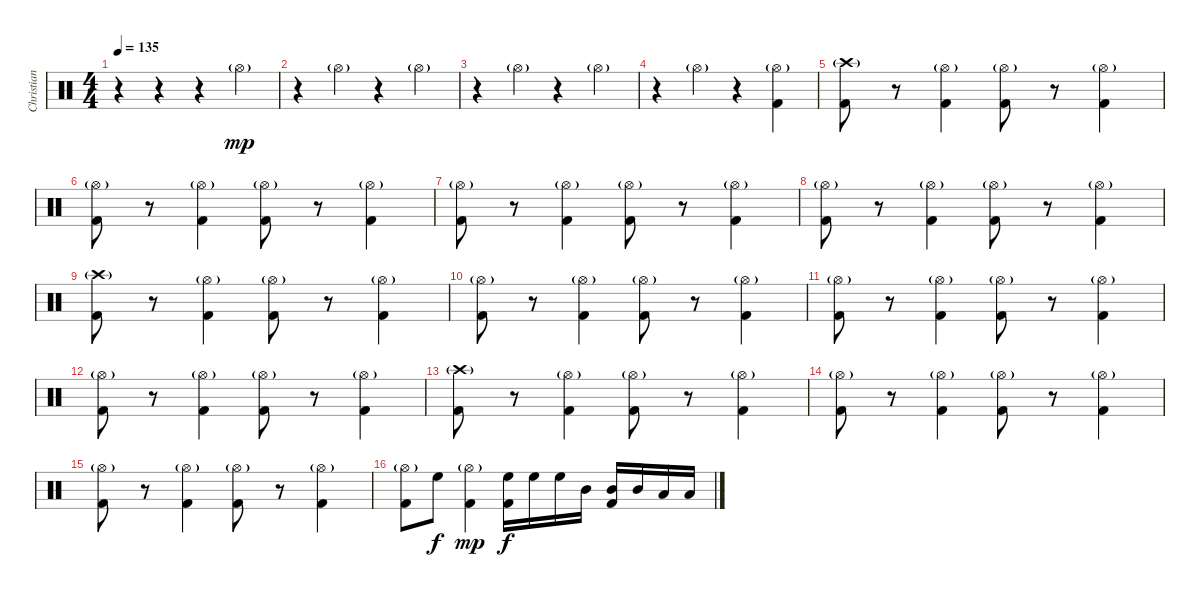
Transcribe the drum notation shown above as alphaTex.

\track ("Christian" "Christian") {instrument percussion}
\staff {score}
\articulation defaults
\ts (4 4)
\tempo 135
\clef neutral
\ks c
r.4{dy mp} r.4 r.4 "Hi-Hat (open)"{g}.4 |
r.4 "Hi-Hat (open)"{g}.4 r.4 "Hi-Hat (open)"{g}.4 |
r.4 "Hi-Hat (open)"{g}.4 r.4 "Hi-Hat (open)"{g}.4 |
r.4 "Hi-Hat (open)"{g}.4 r.4 ("Hi-Hat (open)"{g} "Kick (hit) 2").4 |
("Crash high (hit)"{g} "Kick (hit) 2").8 r.8 ("Hi-Hat (open)"{g} "Kick (hit) 2").4 ("Hi-Hat (open)"{g} "Kick (hit) 2").8 r.8 ("Hi-Hat (open)"{g} "Kick (hit) 2").4 |
("Hi-Hat (open)"{g} "Kick (hit) 2").8 r.8 ("Hi-Hat (open)"{g} "Kick (hit) 2").4 ("Hi-Hat (open)"{g} "Kick (hit) 2").8 r.8 ("Hi-Hat (open)"{g} "Kick (hit) 2").4 |
("Hi-Hat (open)"{g} "Kick (hit) 2").8 r.8 ("Hi-Hat (open)"{g} "Kick (hit) 2").4 ("Hi-Hat (open)"{g} "Kick (hit) 2").8 r.8 ("Hi-Hat (open)"{g} "Kick (hit) 2").4 |
("Hi-Hat (open)"{g} "Kick (hit) 2").8 r.8 ("Hi-Hat (open)"{g} "Kick (hit) 2").4 ("Hi-Hat (open)"{g} "Kick (hit) 2").8 r.8 ("Hi-Hat (open)"{g} "Kick (hit) 2").4 |
("Crash high (hit)"{g} "Kick (hit) 2").8 r.8 ("Hi-Hat (open)"{g} "Kick (hit) 2").4 ("Hi-Hat (open)"{g} "Kick (hit) 2").8 r.8 ("Hi-Hat (open)"{g} "Kick (hit) 2").4 |
("Hi-Hat (open)"{g} "Kick (hit) 2").8 r.8 ("Hi-Hat (open)"{g} "Kick (hit) 2").4 ("Hi-Hat (open)"{g} "Kick (hit) 2").8 r.8 ("Hi-Hat (open)"{g} "Kick (hit) 2").4 |
("Hi-Hat (open)"{g} "Kick (hit) 2").8 r.8 ("Hi-Hat (open)"{g} "Kick (hit) 2").4 ("Hi-Hat (open)"{g} "Kick (hit) 2").8 r.8 ("Hi-Hat (open)"{g} "Kick (hit) 2").4 |
("Hi-Hat (open)"{g} "Kick (hit) 2").8 r.8 ("Hi-Hat (open)"{g} "Kick (hit) 2").4 ("Hi-Hat (open)"{g} "Kick (hit) 2").8 r.8 ("Hi-Hat (open)"{g} "Kick (hit) 2").4 |
("Crash high (hit)"{g} "Kick (hit) 2").8 r.8 ("Hi-Hat (open)"{g} "Kick (hit) 2").4 ("Hi-Hat (open)"{g} "Kick (hit) 2").8 r.8 ("Hi-Hat (open)"{g} "Kick (hit) 2").4 |
("Hi-Hat (open)"{g} "Kick (hit) 2").8 r.8 ("Hi-Hat (open)"{g} "Kick (hit) 2").4 ("Hi-Hat (open)"{g} "Kick (hit) 2").8 r.8 ("Hi-Hat (open)"{g} "Kick (hit) 2").4 |
("Hi-Hat (open)"{g} "Kick (hit) 2").8 r.8 ("Hi-Hat (open)"{g} "Kick (hit) 2").4 ("Hi-Hat (open)"{g} "Kick (hit) 2").8 r.8 ("Hi-Hat (open)"{g} "Kick (hit) 2").4 |
("Hi-Hat (open)"{g} "Kick (hit) 2").8 "High Floor Tom (hit)".8{dy f} ("Hi-Hat (open)"{g} "Kick (hit) 2").4{dy mp} ("High Floor Tom (hit)" "Kick (hit) 2").16{dy f} "High Floor Tom (hit)".16 "High Floor Tom (hit)".16 "Mid Tom (hit)".16 ("Mid Tom (hit)" "Kick (hit) 2").16 "Mid Tom (hit)".16 "Low Tom (hit)".16 "Low Tom (hit)".16
